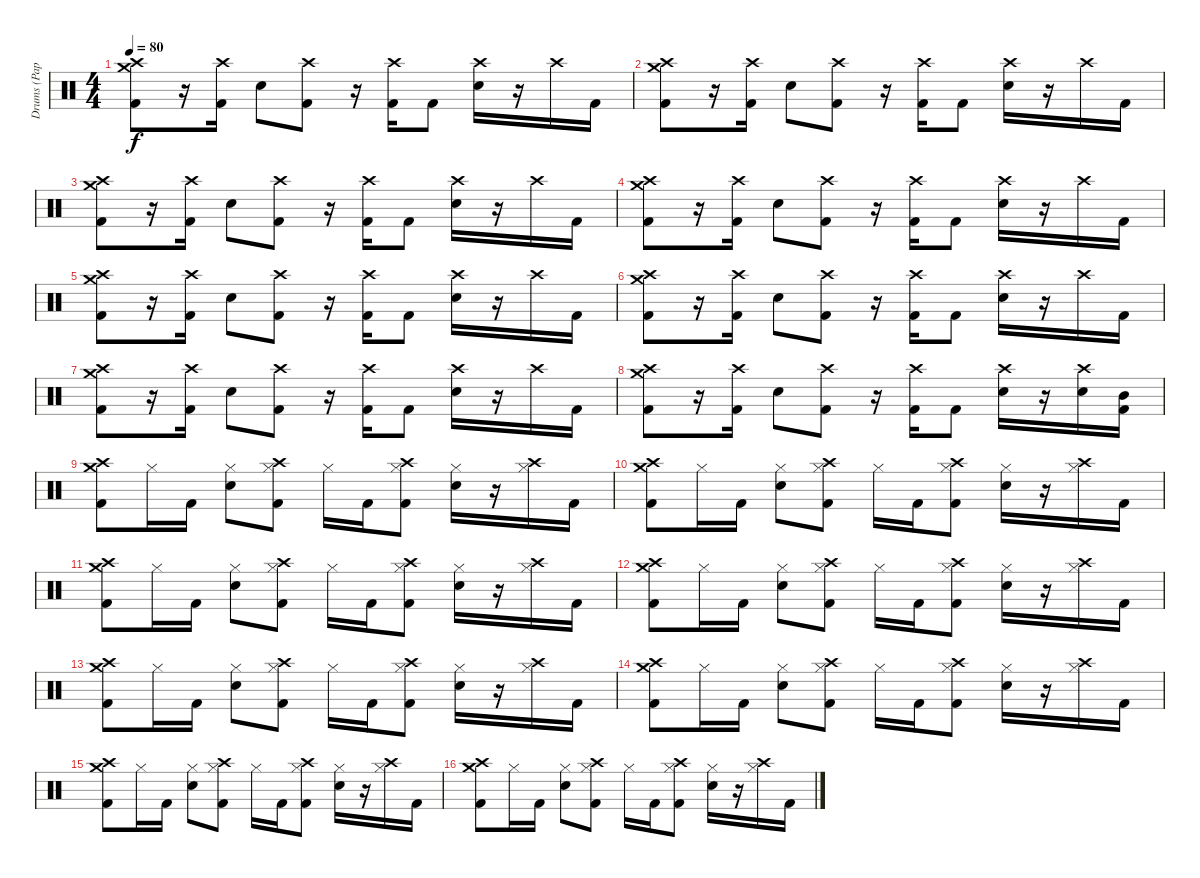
\track ("Drums (Pappas)" "Drums (Pap") {instrument percussion}
\staff {score}
\articulation defaults
\ts (4 4)
\tempo 80
\clef neutral
\ks c
("Crash medium (hit)" "Crash high (hit)" "Kick (hit) 2").8{dy f} r.16 ("Crash high (hit)" "Kick (hit) 2").16 "Electric Snare (hit)".8 ("Crash high (hit)" "Kick (hit) 2").8 r.16 ("Crash high (hit)" "Kick (hit) 2").16 "Kick (hit) 2".8 ("Crash high (hit)" "Electric Snare (hit)").16 r.16 "Crash high (hit)".16 "Kick (hit) 2".16 |
("Crash medium (hit)" "Crash high (hit)" "Kick (hit) 2").8 r.16 ("Crash high (hit)" "Kick (hit) 2").16 "Electric Snare (hit)".8 ("Crash high (hit)" "Kick (hit) 2").8 r.16 ("Crash high (hit)" "Kick (hit) 2").16 "Kick (hit) 2".8 ("Crash high (hit)" "Electric Snare (hit)").16 r.16 "Crash high (hit)".16 "Kick (hit) 2".16 |
("Crash medium (hit)" "Crash high (hit)" "Kick (hit) 2").8 r.16 ("Crash high (hit)" "Kick (hit) 2").16 "Electric Snare (hit)".8 ("Crash high (hit)" "Kick (hit) 2").8 r.16 ("Crash high (hit)" "Kick (hit) 2").16 "Kick (hit) 2".8 ("Crash high (hit)" "Electric Snare (hit)").16 r.16 "Crash high (hit)".16 "Kick (hit) 2".16 |
("Crash medium (hit)" "Crash high (hit)" "Kick (hit) 2").8 r.16 ("Crash high (hit)" "Kick (hit) 2").16 "Electric Snare (hit)".8 ("Crash high (hit)" "Kick (hit) 2").8 r.16 ("Crash high (hit)" "Kick (hit) 2").16 "Kick (hit) 2".8 ("Crash high (hit)" "Electric Snare (hit)").16 r.16 "Crash high (hit)".16 "Kick (hit) 2".16 |
("Crash medium (hit)" "Crash high (hit)" "Kick (hit) 2").8 r.16 ("Crash high (hit)" "Kick (hit) 2").16 "Electric Snare (hit)".8 ("Crash high (hit)" "Kick (hit) 2").8 r.16 ("Crash high (hit)" "Kick (hit) 2").16 "Kick (hit) 2".8 ("Crash high (hit)" "Electric Snare (hit)").16 r.16 "Crash high (hit)".16 "Kick (hit) 2".16 |
("Crash medium (hit)" "Crash high (hit)" "Kick (hit) 2").8 r.16 ("Crash high (hit)" "Kick (hit) 2").16 "Electric Snare (hit)".8 ("Crash high (hit)" "Kick (hit) 2").8 r.16 ("Crash high (hit)" "Kick (hit) 2").16 "Kick (hit) 2".8 ("Crash high (hit)" "Electric Snare (hit)").16 r.16 "Crash high (hit)".16 "Kick (hit) 2".16 |
("Crash medium (hit)" "Crash high (hit)" "Kick (hit) 2").8 r.16 ("Crash high (hit)" "Kick (hit) 2").16 "Electric Snare (hit)".8 ("Crash high (hit)" "Kick (hit) 2").8 r.16 ("Crash high (hit)" "Kick (hit) 2").16 "Kick (hit) 2".8 ("Crash high (hit)" "Electric Snare (hit)").16 r.16 "Crash high (hit)".16 "Kick (hit) 2".16 |
("Crash medium (hit)" "Crash high (hit)" "Kick (hit) 2").8 r.16 ("Crash high (hit)" "Kick (hit) 2").16 "Electric Snare (hit)".8 ("Crash high (hit)" "Kick (hit) 2").8 r.16 ("Crash high (hit)" "Kick (hit) 2").16 "Kick (hit) 2".8 ("Crash high (hit)" "Electric Snare (hit)").16 r.16 ("Crash high (hit)" "Electric Snare (hit)").16 ("Mid Tom (hit)" "Kick (hit) 2").16 |
("Crash medium (hit)" "Crash high (hit)" "Kick (hit) 2").8 "Hi-Hat (closed)".16 "Kick (hit) 2".16 ("Hi-Hat (closed)" "Electric Snare (hit)").8 ("Crash high (hit)" "Hi-Hat (closed)" "Kick (hit) 2").8 "Hi-Hat (closed)".16 "Kick (hit) 2".16 ("Crash high (hit)" "Hi-Hat (closed)" "Kick (hit) 2").8 ("Hi-Hat (closed)" "Electric Snare (hit)").16 r.16 ("Crash high (hit)" "Hi-Hat (closed)").16 "Kick (hit) 2".16 |
("Crash medium (hit)" "Crash high (hit)" "Kick (hit) 2").8 "Hi-Hat (closed)".16 "Kick (hit) 2".16 ("Hi-Hat (closed)" "Electric Snare (hit)").8 ("Crash high (hit)" "Hi-Hat (closed)" "Kick (hit) 2").8 "Hi-Hat (closed)".16 "Kick (hit) 2".16 ("Crash high (hit)" "Hi-Hat (closed)" "Kick (hit) 2").8 ("Hi-Hat (closed)" "Electric Snare (hit)").16 r.16 ("Crash high (hit)" "Hi-Hat (closed)").16 "Kick (hit) 2".16 |
("Crash medium (hit)" "Crash high (hit)" "Kick (hit) 2").8 "Hi-Hat (closed)".16 "Kick (hit) 2".16 ("Hi-Hat (closed)" "Electric Snare (hit)").8 ("Crash high (hit)" "Hi-Hat (closed)" "Kick (hit) 2").8 "Hi-Hat (closed)".16 "Kick (hit) 2".16 ("Crash high (hit)" "Hi-Hat (closed)" "Kick (hit) 2").8 ("Hi-Hat (closed)" "Electric Snare (hit)").16 r.16 ("Crash high (hit)" "Hi-Hat (closed)").16 "Kick (hit) 2".16 |
("Crash medium (hit)" "Crash high (hit)" "Kick (hit) 2").8 "Hi-Hat (closed)".16 "Kick (hit) 2".16 ("Hi-Hat (closed)" "Electric Snare (hit)").8 ("Crash high (hit)" "Hi-Hat (closed)" "Kick (hit) 2").8 "Hi-Hat (closed)".16 "Kick (hit) 2".16 ("Crash high (hit)" "Hi-Hat (closed)" "Kick (hit) 2").8 ("Hi-Hat (closed)" "Electric Snare (hit)").16 r.16 ("Crash high (hit)" "Hi-Hat (closed)").16 "Kick (hit) 2".16 |
("Crash medium (hit)" "Crash high (hit)" "Kick (hit) 2").8 "Hi-Hat (closed)".16 "Kick (hit) 2".16 ("Hi-Hat (closed)" "Electric Snare (hit)").8 ("Crash high (hit)" "Hi-Hat (closed)" "Kick (hit) 2").8 "Hi-Hat (closed)".16 "Kick (hit) 2".16 ("Crash high (hit)" "Hi-Hat (closed)" "Kick (hit) 2").8 ("Hi-Hat (closed)" "Electric Snare (hit)").16 r.16 ("Crash high (hit)" "Hi-Hat (closed)").16 "Kick (hit) 2".16 |
("Crash medium (hit)" "Crash high (hit)" "Kick (hit) 2").8 "Hi-Hat (closed)".16 "Kick (hit) 2".16 ("Hi-Hat (closed)" "Electric Snare (hit)").8 ("Crash high (hit)" "Hi-Hat (closed)" "Kick (hit) 2").8 "Hi-Hat (closed)".16 "Kick (hit) 2".16 ("Crash high (hit)" "Hi-Hat (closed)" "Kick (hit) 2").8 ("Hi-Hat (closed)" "Electric Snare (hit)").16 r.16 ("Crash high (hit)" "Hi-Hat (closed)").16 "Kick (hit) 2".16 |
("Crash medium (hit)" "Crash high (hit)" "Kick (hit) 2").8 "Hi-Hat (closed)".16 "Kick (hit) 2".16 ("Hi-Hat (closed)" "Electric Snare (hit)").8 ("Crash high (hit)" "Hi-Hat (closed)" "Kick (hit) 2").8 "Hi-Hat (closed)".16 "Kick (hit) 2".16 ("Crash high (hit)" "Hi-Hat (closed)" "Kick (hit) 2").8 ("Hi-Hat (closed)" "Electric Snare (hit)").16 r.16 ("Crash high (hit)" "Hi-Hat (closed)").16 "Kick (hit) 2".16 |
("Crash medium (hit)" "Crash high (hit)" "Kick (hit) 2").8 "Hi-Hat (closed)".16 "Kick (hit) 2".16 ("Hi-Hat (closed)" "Electric Snare (hit)").8 ("Crash high (hit)" "Hi-Hat (closed)" "Kick (hit) 2").8 "Hi-Hat (closed)".16 "Kick (hit) 2".16 ("Crash high (hit)" "Hi-Hat (closed)" "Kick (hit) 2").8 ("Hi-Hat (closed)" "Electric Snare (hit)").16 r.16 ("Crash high (hit)" "Hi-Hat (closed)").16 "Kick (hit) 2".16
